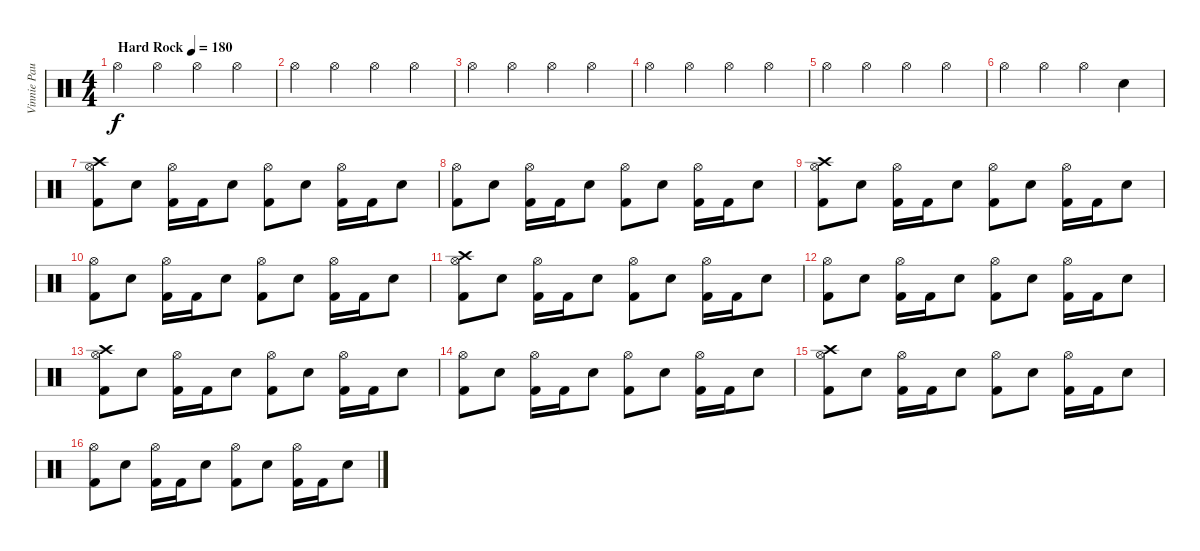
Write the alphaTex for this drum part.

\track ("Vinnie Paul" "Vinnie Pau") {instrument percussion}
\staff {score}
\articulation defaults
\ts (4 4)
\tempo (180 "Hard Rock")
\clef neutral
\ks c "Hi-Hat (open)".4{dy f} "Hi-Hat (open)".4 "Hi-Hat (open)".4 "Hi-Hat (open)".4
|
"Hi-Hat (open)".4 "Hi-Hat (open)".4 "Hi-Hat (open)".4 "Hi-Hat (open)".4 |
"Hi-Hat (open)".4 "Hi-Hat (open)".4 "Hi-Hat (open)".4 "Hi-Hat (open)".4 |
"Hi-Hat (open)".4 "Hi-Hat (open)".4 "Hi-Hat (open)".4 "Hi-Hat (open)".4 |
"Hi-Hat (open)".4 "Hi-Hat (open)".4 "Hi-Hat (open)".4 "Hi-Hat (open)".4 |
"Hi-Hat (open)".4 "Hi-Hat (open)".4 "Hi-Hat (open)".4 "Snare (hit) 2".4 |
("Hi-Hat (open)" "Crash high (hit)" "Kick (hit) 2").8 "Snare (hit) 2".8 ("Hi-Hat (open)" "Kick (hit) 2").16 "Kick (hit) 2".16 "Snare (hit) 2".8 ("Hi-Hat (open)" "Kick (hit) 2").8 "Snare (hit) 2".8 ("Hi-Hat (open)" "Kick (hit) 2").16 "Kick (hit) 2".16 "Snare (hit) 2".8 |
("Hi-Hat (open)" "Kick (hit) 2").8 "Snare (hit) 2".8 ("Hi-Hat (open)" "Kick (hit) 2").16 "Kick (hit) 2".16 "Snare (hit) 2".8 ("Hi-Hat (open)" "Kick (hit) 2").8 "Snare (hit) 2".8 ("Hi-Hat (open)" "Kick (hit) 2").16 "Kick (hit) 2".16 "Snare (hit) 2".8 |
("Hi-Hat (open)" "Crash high (hit)" "Kick (hit) 2").8 "Snare (hit) 2".8 ("Hi-Hat (open)" "Kick (hit) 2").16 "Kick (hit) 2".16 "Snare (hit) 2".8 ("Hi-Hat (open)" "Kick (hit) 2").8 "Snare (hit) 2".8 ("Hi-Hat (open)" "Kick (hit) 2").16 "Kick (hit) 2".16 "Snare (hit) 2".8 |
("Hi-Hat (open)" "Kick (hit) 2").8 "Snare (hit) 2".8 ("Hi-Hat (open)" "Kick (hit) 2").16 "Kick (hit) 2".16 "Snare (hit) 2".8 ("Hi-Hat (open)" "Kick (hit) 2").8 "Snare (hit) 2".8 ("Hi-Hat (open)" "Kick (hit) 2").16 "Kick (hit) 2".16 "Snare (hit) 2".8 |
("Hi-Hat (open)" "Crash high (hit)" "Kick (hit) 2").8 "Snare (hit) 2".8 ("Hi-Hat (open)" "Kick (hit) 2").16 "Kick (hit) 2".16 "Snare (hit) 2".8 ("Hi-Hat (open)" "Kick (hit) 2").8 "Snare (hit) 2".8 ("Hi-Hat (open)" "Kick (hit) 2").16 "Kick (hit) 2".16 "Snare (hit) 2".8 |
("Hi-Hat (open)" "Kick (hit) 2").8 "Snare (hit) 2".8 ("Hi-Hat (open)" "Kick (hit) 2").16 "Kick (hit) 2".16 "Snare (hit) 2".8 ("Hi-Hat (open)" "Kick (hit) 2").8 "Snare (hit) 2".8 ("Hi-Hat (open)" "Kick (hit) 2").16 "Kick (hit) 2".16 "Snare (hit) 2".8 |
("Hi-Hat (open)" "Crash high (hit)" "Kick (hit) 2").8 "Snare (hit) 2".8 ("Hi-Hat (open)" "Kick (hit) 2").16 "Kick (hit) 2".16 "Snare (hit) 2".8 ("Hi-Hat (open)" "Kick (hit) 2").8 "Snare (hit) 2".8 ("Hi-Hat (open)" "Kick (hit) 2").16 "Kick (hit) 2".16 "Snare (hit) 2".8 |
("Hi-Hat (open)" "Kick (hit) 2").8 "Snare (hit) 2".8 ("Hi-Hat (open)" "Kick (hit) 2").16 "Kick (hit) 2".16 "Snare (hit) 2".8 ("Hi-Hat (open)" "Kick (hit) 2").8 "Snare (hit) 2".8 ("Hi-Hat (open)" "Kick (hit) 2").16 "Kick (hit) 2".16 "Snare (hit) 2".8 |
("Hi-Hat (open)" "Crash high (hit)" "Kick (hit) 2").8 "Snare (hit) 2".8 ("Hi-Hat (open)" "Kick (hit) 2").16 "Kick (hit) 2".16 "Snare (hit) 2".8 ("Hi-Hat (open)" "Kick (hit) 2").8 "Snare (hit) 2".8 ("Hi-Hat (open)" "Kick (hit) 2").16 "Kick (hit) 2".16 "Snare (hit) 2".8 |
("Hi-Hat (open)" "Kick (hit) 2").8 "Snare (hit) 2".8 ("Hi-Hat (open)" "Kick (hit) 2").16 "Kick (hit) 2".16 "Snare (hit) 2".8 ("Hi-Hat (open)" "Kick (hit) 2").8 "Snare (hit) 2".8 ("Hi-Hat (open)" "Kick (hit) 2").16 "Kick (hit) 2".16 "Snare (hit) 2".8
